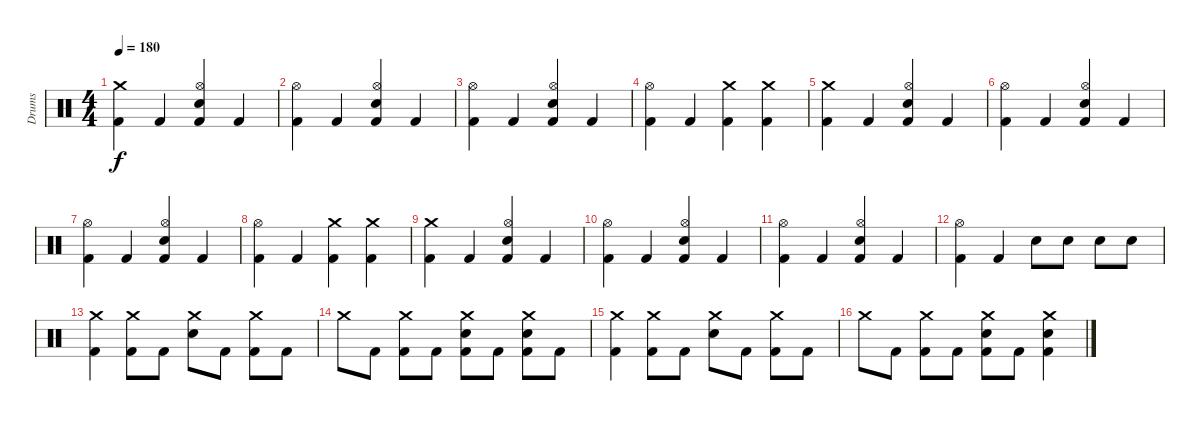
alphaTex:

\track ("Drums" "Drums") {instrument percussion}
\staff {score}
\articulation defaults
\ts (4 4)
\tempo 180
\clef neutral
\ks c
("Crash medium (hit)" "Kick (hit) 2").4{dy f} "Kick (hit) 2".4 ("Hi-Hat (open)" "Snare (hit) 2" "Kick (hit) 2").4 "Kick (hit) 2".4 |
("Hi-Hat (open)" "Kick (hit) 2").4 "Kick (hit) 2".4 ("Hi-Hat (open)" "Snare (hit) 2" "Kick (hit) 2").4 "Kick (hit) 2".4 |
("Hi-Hat (open)" "Kick (hit) 2").4 "Kick (hit) 2".4 ("Hi-Hat (open)" "Snare (hit) 2" "Kick (hit) 2").4 "Kick (hit) 2".4 |
("Hi-Hat (open)" "Kick (hit) 2").4 "Kick (hit) 2".4 ("Crash medium (hit)" "Kick (hit) 2").4 ("Crash medium (hit)" "Kick (hit) 2").4 |
("Crash medium (hit)" "Kick (hit) 2").4 "Kick (hit) 2".4 ("Hi-Hat (open)" "Snare (hit) 2" "Kick (hit) 2").4 "Kick (hit) 2".4 |
("Hi-Hat (open)" "Kick (hit) 2").4 "Kick (hit) 2".4 ("Hi-Hat (open)" "Snare (hit) 2" "Kick (hit) 2").4 "Kick (hit) 2".4 |
("Hi-Hat (open)" "Kick (hit) 2").4 "Kick (hit) 2".4 ("Hi-Hat (open)" "Snare (hit) 2" "Kick (hit) 2").4 "Kick (hit) 2".4 |
("Hi-Hat (open)" "Kick (hit) 2").4 "Kick (hit) 2".4 ("Crash medium (hit)" "Kick (hit) 2").4 ("Crash medium (hit)" "Kick (hit) 2").4 |
("Crash medium (hit)" "Kick (hit) 2").4 "Kick (hit) 2".4 ("Hi-Hat (open)" "Snare (hit) 2" "Kick (hit) 2").4 "Kick (hit) 2".4 |
("Hi-Hat (open)" "Kick (hit) 2").4 "Kick (hit) 2".4 ("Hi-Hat (open)" "Snare (hit) 2" "Kick (hit) 2").4 "Kick (hit) 2".4 |
("Hi-Hat (open)" "Kick (hit) 2").4 "Kick (hit) 2".4 ("Hi-Hat (open)" "Snare (hit) 2" "Kick (hit) 2").4 "Kick (hit) 2".4 |
("Hi-Hat (open)" "Kick (hit) 2").4 "Kick (hit) 2".4 "Snare (hit) 2".8 "Snare (hit) 2".8 "Snare (hit) 2".8 "Snare (hit) 2".8 |
("Crash medium (hit)" "Kick (hit) 2").4 ("Crash medium (hit)" "Kick (hit) 2").8 "Kick (hit) 2".8 ("Crash medium (hit)" "Snare (hit) 2").8 "Kick (hit) 2".8 ("Crash medium (hit)" "Kick (hit) 2").8 "Kick (hit) 2".8 |
"Crash medium (hit)".8 "Kick (hit) 2".8 ("Crash medium (hit)" "Kick (hit) 2").8 "Kick (hit) 2".8 ("Crash medium (hit)" "Snare (hit) 2" "Kick (hit) 2").8 "Kick (hit) 2".8 ("Crash medium (hit)" "Snare (hit) 2" "Kick (hit) 2").8 "Kick (hit) 2".8 |
("Crash medium (hit)" "Kick (hit) 2").4 ("Crash medium (hit)" "Kick (hit) 2").8 "Kick (hit) 2".8 ("Crash medium (hit)" "Snare (hit) 2").8 "Kick (hit) 2".8 ("Crash medium (hit)" "Kick (hit) 2").8 "Kick (hit) 2".8 |
"Crash medium (hit)".8 "Kick (hit) 2".8 ("Crash medium (hit)" "Kick (hit) 2").8 "Kick (hit) 2".8 ("Crash medium (hit)" "Snare (hit) 2" "Kick (hit) 2").8 "Kick (hit) 2".8 ("Crash medium (hit)" "Snare (hit) 2" "Kick (hit) 2").4
